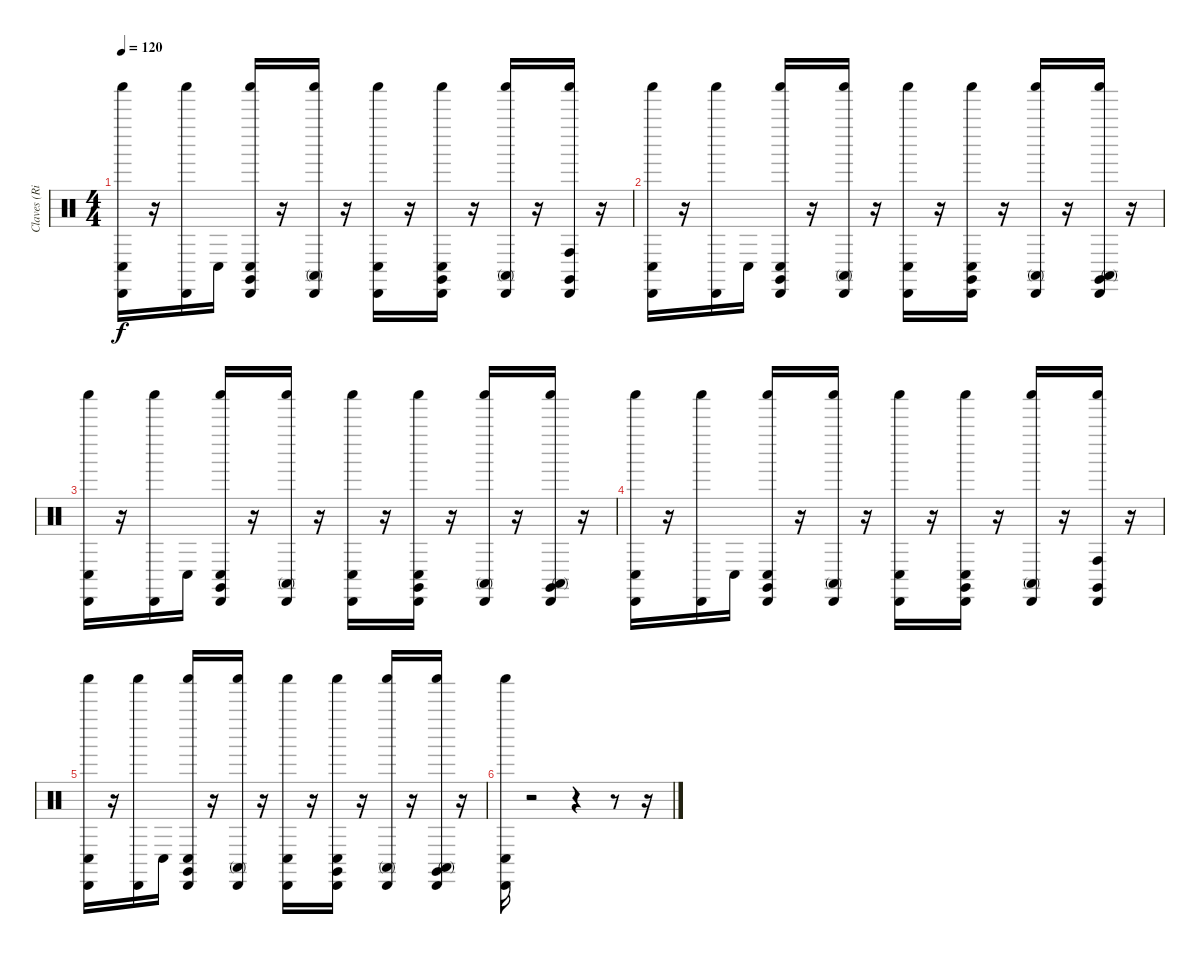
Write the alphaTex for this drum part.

\track ("Claves (Ringo)" "Claves (Ri") {instrument percussion}
\staff {score}
\articulation defaults
\ts (4 4)
\tempo 120
\clef neutral
\ks c
("Cabasa (hit)" "Conga low (hit)" "Shaker (hit)").16{dy f} r.16 ("Shaker (hit)" "Cabasa (hit)").16 "Conga low (hit)".16 ("Conga low (hit)" "Shaker (hit)" "Claves (hit)" "Cabasa (hit)").16 r.16 ("Conga high (mute)" "Shaker (hit)" "Cabasa (hit)").16 r.16 ("Shaker (hit)" "Conga low (hit)" "Cabasa (hit)").16 r.16 ("Shaker (hit)" "Conga low (hit)" "Cabasa (hit)" "Claves (hit)").16 r.16 ("Cabasa (hit)" "Conga high (mute)" "Shaker (hit)").16 r.16 ("Claves (hit)" "Conga high (hit)" "Cabasa (hit)" "Shaker (hit)").16 r.16 |
("Shaker (hit)" "Cabasa (hit)" "Conga low (hit)").16 r.16 ("Shaker (hit)" "Cabasa (hit)").16 "Conga low (hit)".16 ("Claves (hit)" "Conga low (hit)" "Cabasa (hit)" "Shaker (hit)").16 r.16 ("Shaker (hit)" "Conga high (mute)" "Cabasa (hit)").16 r.16 ("Shaker (hit)" "Cabasa (hit)" "Conga low (hit)").16 r.16 ("Claves (hit)" "Conga low (hit)" "Cabasa (hit)" "Shaker (hit)").16 r.16 ("Cabasa (hit)" "Shaker (hit)" "Conga high (mute)").16 r.16 ("Cabasa (hit)" "Conga high (mute)" "Shaker (hit)" "Claves (hit)").16 r.16 |
("Conga low (hit)" "Cabasa (hit)" "Shaker (hit)").16 r.16 ("Shaker (hit)" "Cabasa (hit)").16 "Conga low (hit)".16 ("Cabasa (hit)" "Shaker (hit)" "Claves (hit)" "Conga low (hit)").16 r.16 ("Shaker (hit)" "Cabasa (hit)" "Conga high (mute)").16 r.16 ("Cabasa (hit)" "Conga low (hit)" "Shaker (hit)").16 r.16 ("Cabasa (hit)" "Conga low (hit)" "Shaker (hit)" "Claves (hit)").16 r.16 ("Conga high (mute)" "Cabasa (hit)" "Shaker (hit)").16 r.16 ("Shaker (hit)" "Conga high (mute)" "Claves (hit)" "Cabasa (hit)").16 r.16 |
("Shaker (hit)" "Conga low (hit)" "Cabasa (hit)").16 r.16 ("Cabasa (hit)" "Shaker (hit)").16 "Conga low (hit)".16 ("Conga low (hit)" "Claves (hit)" "Cabasa (hit)" "Shaker (hit)").16 r.16 ("Cabasa (hit)" "Conga high (mute)" "Shaker (hit)").16 r.16 ("Shaker (hit)" "Cabasa (hit)" "Conga low (hit)").16 r.16 ("Conga low (hit)" "Shaker (hit)" "Claves (hit)" "Cabasa (hit)").16 r.16 ("Cabasa (hit)" "Shaker (hit)" "Conga high (mute)").16 r.16 ("Shaker (hit)" "Claves (hit)" "Conga high (hit)" "Cabasa (hit)").16 r.16 |
("Shaker (hit)" "Cabasa (hit)" "Conga low (hit)").16 r.16 ("Cabasa (hit)" "Shaker (hit)").16 "Conga low (hit)".16 ("Cabasa (hit)" "Conga low (hit)" "Claves (hit)" "Shaker (hit)").16 r.16 ("Shaker (hit)" "Cabasa (hit)" "Conga high (mute)").16 r.16 ("Conga low (hit)" "Cabasa (hit)" "Shaker (hit)").16 r.16 ("Conga low (hit)" "Claves (hit)" "Cabasa (hit)" "Shaker (hit)").16 r.16 ("Shaker (hit)" "Conga high (mute)" "Cabasa (hit)").16 r.16 ("Shaker (hit)" "Claves (hit)" "Cabasa (hit)" "Conga high (mute)").16 r.16 |
("Conga low (hit)" "Cabasa (hit)" "Shaker (hit)").16 r.2 r.4 r.8 r.16
